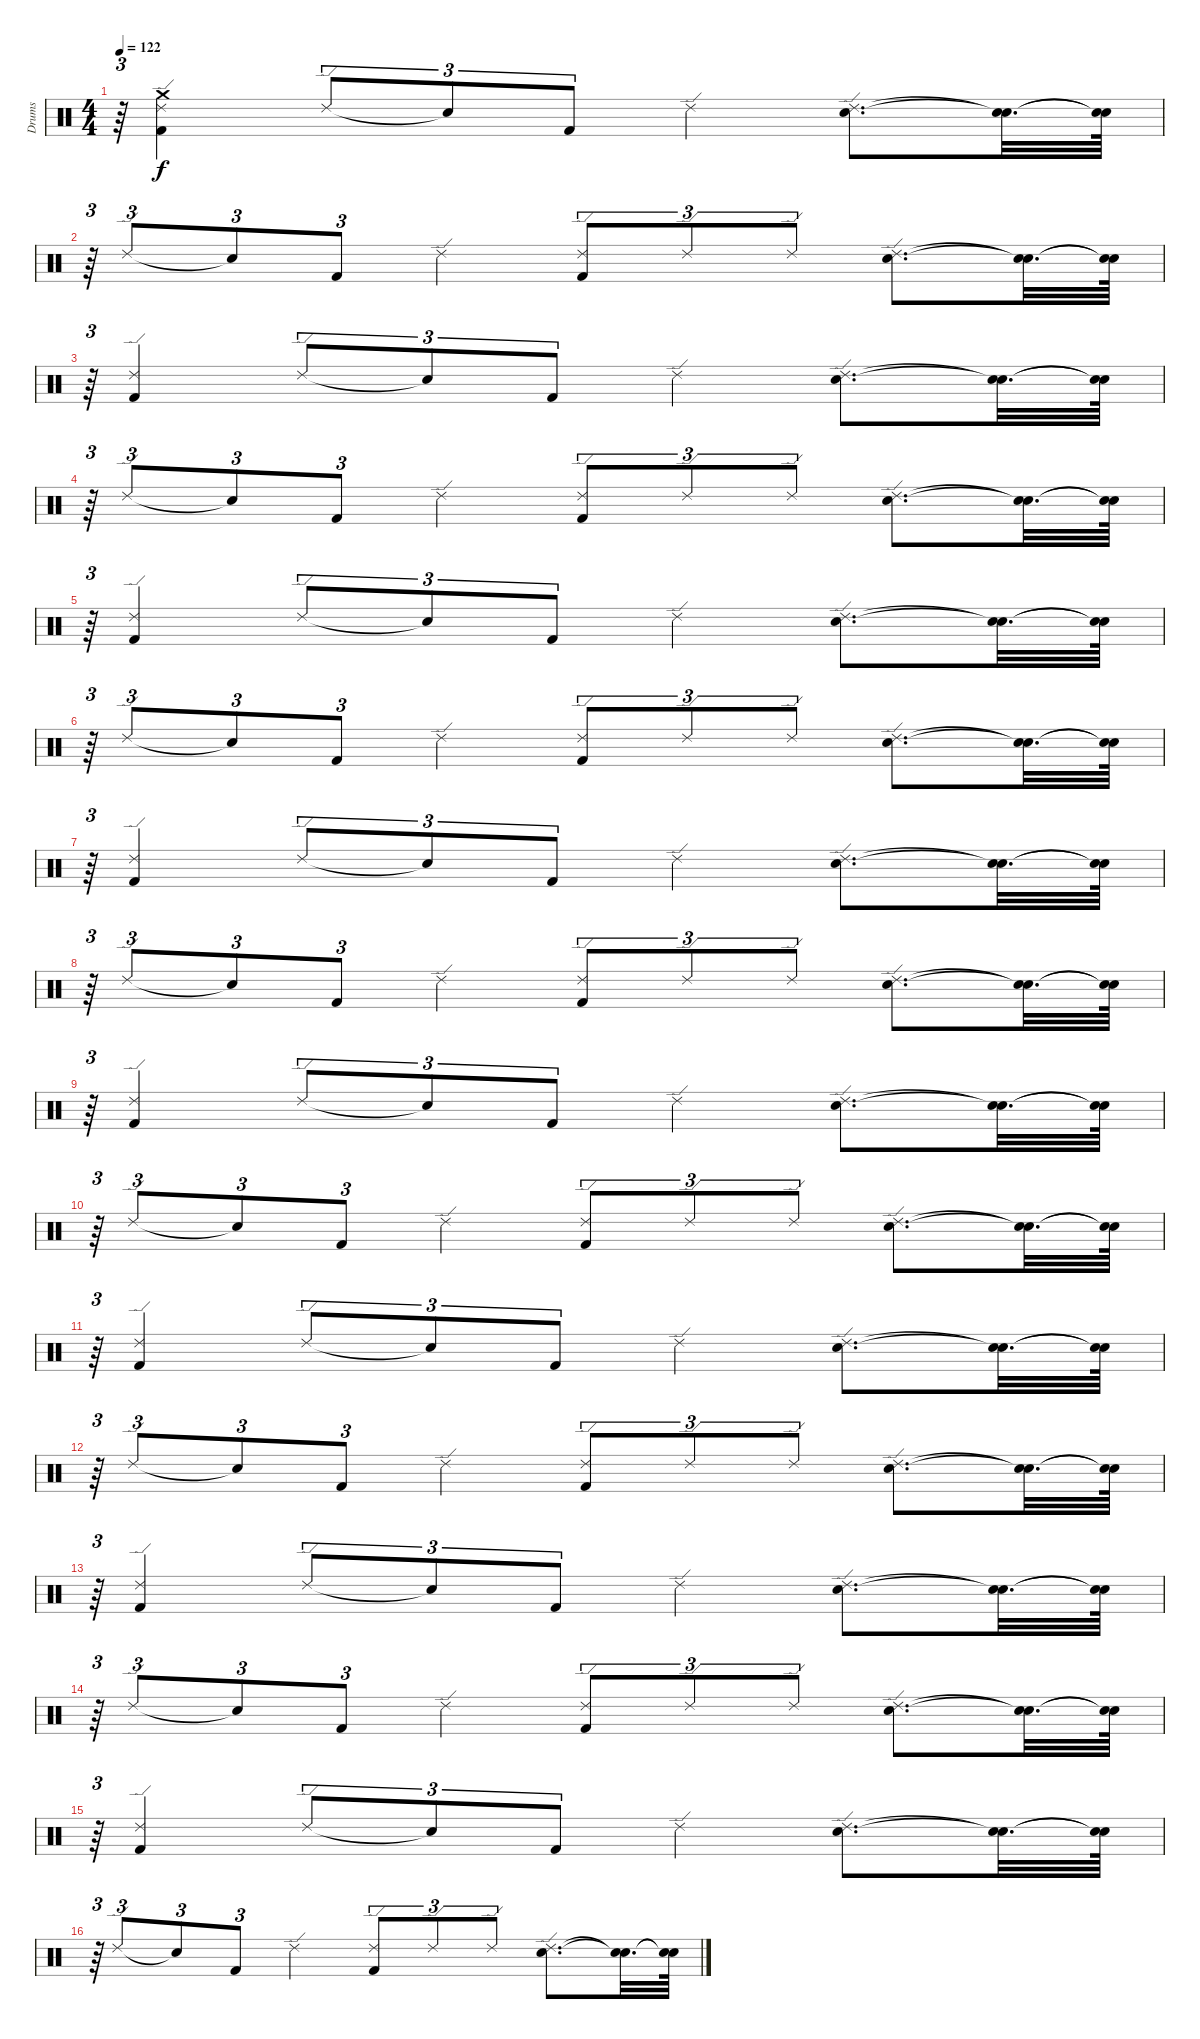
\track ("Drums" "Drums") {instrument percussion}
\staff {score}
\articulation defaults
\ts (4 4)
\tempo 122
\clef neutral
\ks c
r.64{tu (3 2) dy f} ("Crash medium (hit)" "Kick (hit) 2" "Ride (edge) 2").4 "Ride (edge) 2".8{tu (3 2)} "Snare (hit)"{t}.8{tu (3 2)} "Kick (hit) 2".8{tu (3 2)} "Ride (edge) 2".4 ("Snare (hit) 2" "Ride (edge) 2").8{d} ("Snare (hit)"{t} "Snare (hit)"{t}).32{d} ("Snare (hit)"{t} "Snare (hit)"{t}).64 |
r.64{tu (3 2)} "Ride (edge) 2".8{tu (3 2)} "Snare (hit)"{t}.8{tu (3 2)} "Kick (hit) 2".8{tu (3 2)} "Ride (edge) 2".4 ("Kick (hit) 2" "Ride (edge) 2").8{tu (3 2)} "Ride (edge) 2".8{tu (3 2)} "Ride (edge) 2".8{tu (3 2)} ("Snare (hit) 2" "Ride (edge) 2").8{d} ("Snare (hit)"{t} "Snare (hit)"{t}).32{d} ("Snare (hit)"{t} "Snare (hit)"{t}).64 |
r.64{tu (3 2)} ("Kick (hit) 2" "Ride (edge) 2").4 "Ride (edge) 2".8{tu (3 2)} "Snare (hit)"{t}.8{tu (3 2)} "Kick (hit) 2".8{tu (3 2)} "Ride (edge) 2".4 ("Snare (hit) 2" "Ride (edge) 2").8{d} ("Snare (hit)"{t} "Snare (hit)"{t}).32{d} ("Snare (hit)"{t} "Snare (hit)"{t}).64 |
r.64{tu (3 2)} "Ride (edge) 2".8{tu (3 2)} "Snare (hit)"{t}.8{tu (3 2)} "Kick (hit) 2".8{tu (3 2)} "Ride (edge) 2".4 ("Kick (hit) 2" "Ride (edge) 2").8{tu (3 2)} "Ride (edge) 2".8{tu (3 2)} "Ride (edge) 2".8{tu (3 2)} ("Snare (hit) 2" "Ride (edge) 2").8{d} ("Snare (hit)"{t} "Snare (hit)"{t}).32{d} ("Snare (hit)"{t} "Snare (hit)"{t}).64 |
r.64{tu (3 2)} ("Kick (hit) 2" "Ride (edge) 2").4 "Ride (edge) 2".8{tu (3 2)} "Snare (hit)"{t}.8{tu (3 2)} "Kick (hit) 2".8{tu (3 2)} "Ride (edge) 2".4 ("Snare (hit) 2" "Ride (edge) 2").8{d} ("Snare (hit)"{t} "Snare (hit)"{t}).32{d} ("Snare (hit)"{t} "Snare (hit)"{t}).64 |
r.64{tu (3 2)} "Ride (edge) 2".8{tu (3 2)} "Snare (hit)"{t}.8{tu (3 2)} "Kick (hit) 2".8{tu (3 2)} "Ride (edge) 2".4 ("Kick (hit) 2" "Ride (edge) 2").8{tu (3 2)} "Ride (edge) 2".8{tu (3 2)} "Ride (edge) 2".8{tu (3 2)} ("Snare (hit) 2" "Ride (edge) 2").8{d} ("Snare (hit)"{t} "Snare (hit)"{t}).32{d} ("Snare (hit)"{t} "Snare (hit)"{t}).64 |
r.64{tu (3 2)} ("Kick (hit) 2" "Ride (edge) 2").4 "Ride (edge) 2".8{tu (3 2)} "Snare (hit)"{t}.8{tu (3 2)} "Kick (hit) 2".8{tu (3 2)} "Ride (edge) 2".4 ("Snare (hit) 2" "Ride (edge) 2").8{d} ("Snare (hit)"{t} "Snare (hit)"{t}).32{d} ("Snare (hit)"{t} "Snare (hit)"{t}).64 |
r.64{tu (3 2)} "Ride (edge) 2".8{tu (3 2)} "Snare (hit)"{t}.8{tu (3 2)} "Kick (hit) 2".8{tu (3 2)} "Ride (edge) 2".4 ("Kick (hit) 2" "Ride (edge) 2").8{tu (3 2)} "Ride (edge) 2".8{tu (3 2)} "Ride (edge) 2".8{tu (3 2)} ("Snare (hit) 2" "Ride (edge) 2").8{d} ("Snare (hit)"{t} "Snare (hit)"{t}).32{d} ("Snare (hit)"{t} "Snare (hit)"{t}).64 |
r.64{tu (3 2)} ("Ride (edge) 2" "Kick (hit) 2").4 "Ride (edge) 2".8{tu (3 2)} "Snare (hit)"{t}.8{tu (3 2)} "Kick (hit) 2".8{tu (3 2)} "Ride (edge) 2".4 ("Ride (edge) 2" "Snare (hit) 2").8{d} ("Snare (hit)"{t} "Snare (hit)"{t}).32{d} ("Snare (hit)"{t} "Snare (hit)"{t}).64 |
r.64{tu (3 2)} "Ride (edge) 2".8{tu (3 2)} "Snare (hit)"{t}.8{tu (3 2)} "Kick (hit) 2".8{tu (3 2)} "Ride (edge) 2".4 ("Ride (edge) 2" "Kick (hit) 2").8{tu (3 2)} "Ride (edge) 2".8{tu (3 2)} "Ride (edge) 2".8{tu (3 2)} ("Ride (edge) 2" "Snare (hit) 2").8{d} ("Snare (hit)"{t} "Snare (hit)"{t}).32{d} ("Snare (hit)"{t} "Snare (hit)"{t}).64 |
r.64{tu (3 2)} ("Ride (edge) 2" "Kick (hit) 2").4 "Ride (edge) 2".8{tu (3 2)} "Snare (hit)"{t}.8{tu (3 2)} "Kick (hit) 2".8{tu (3 2)} "Ride (edge) 2".4 ("Ride (edge) 2" "Snare (hit) 2").8{d} ("Snare (hit)"{t} "Snare (hit)"{t}).32{d} ("Snare (hit)"{t} "Snare (hit)"{t}).64 |
r.64{tu (3 2)} "Ride (edge) 2".8{tu (3 2)} "Snare (hit)"{t}.8{tu (3 2)} "Kick (hit) 2".8{tu (3 2)} "Ride (edge) 2".4 ("Ride (edge) 2" "Kick (hit) 2").8{tu (3 2)} "Ride (edge) 2".8{tu (3 2)} "Ride (edge) 2".8{tu (3 2)} ("Ride (edge) 2" "Snare (hit) 2").8{d} ("Snare (hit)"{t} "Snare (hit)"{t}).32{d} ("Snare (hit)"{t} "Snare (hit)"{t}).64 |
r.64{tu (3 2)} ("Ride (edge) 2" "Kick (hit) 2").4 "Ride (edge) 2".8{tu (3 2)} "Snare (hit)"{t}.8{tu (3 2)} "Kick (hit) 2".8{tu (3 2)} "Ride (edge) 2".4 ("Ride (edge) 2" "Snare (hit) 2").8{d} ("Snare (hit)"{t} "Snare (hit)"{t}).32{d} ("Snare (hit)"{t} "Snare (hit)"{t}).64 |
r.64{tu (3 2)} "Ride (edge) 2".8{tu (3 2)} "Snare (hit)"{t}.8{tu (3 2)} "Kick (hit) 2".8{tu (3 2)} "Ride (edge) 2".4 ("Ride (edge) 2" "Kick (hit) 2").8{tu (3 2)} "Ride (edge) 2".8{tu (3 2)} "Ride (edge) 2".8{tu (3 2)} ("Ride (edge) 2" "Snare (hit) 2").8{d} ("Snare (hit)"{t} "Snare (hit)"{t}).32{d} ("Snare (hit)"{t} "Snare (hit)"{t}).64 |
r.64{tu (3 2)} ("Ride (edge) 2" "Kick (hit) 2").4 "Ride (edge) 2".8{tu (3 2)} "Snare (hit)"{t}.8{tu (3 2)} "Kick (hit) 2".8{tu (3 2)} "Ride (edge) 2".4 ("Ride (edge) 2" "Snare (hit) 2").8{d} ("Snare (hit)"{t} "Snare (hit)"{t}).32{d} ("Snare (hit)"{t} "Snare (hit)"{t}).64 |
r.64{tu (3 2)} "Ride (edge) 2".8{tu (3 2)} "Snare (hit)"{t}.8{tu (3 2)} "Kick (hit) 2".8{tu (3 2)} "Ride (edge) 2".4 ("Ride (edge) 2" "Kick (hit) 2").8{tu (3 2)} "Ride (edge) 2".8{tu (3 2)} "Ride (edge) 2".8{tu (3 2)} ("Ride (edge) 2" "Snare (hit) 2").8{d} ("Snare (hit)"{t} "Snare (hit)"{t}).32{d} ("Snare (hit)"{t} "Snare (hit)"{t}).64
